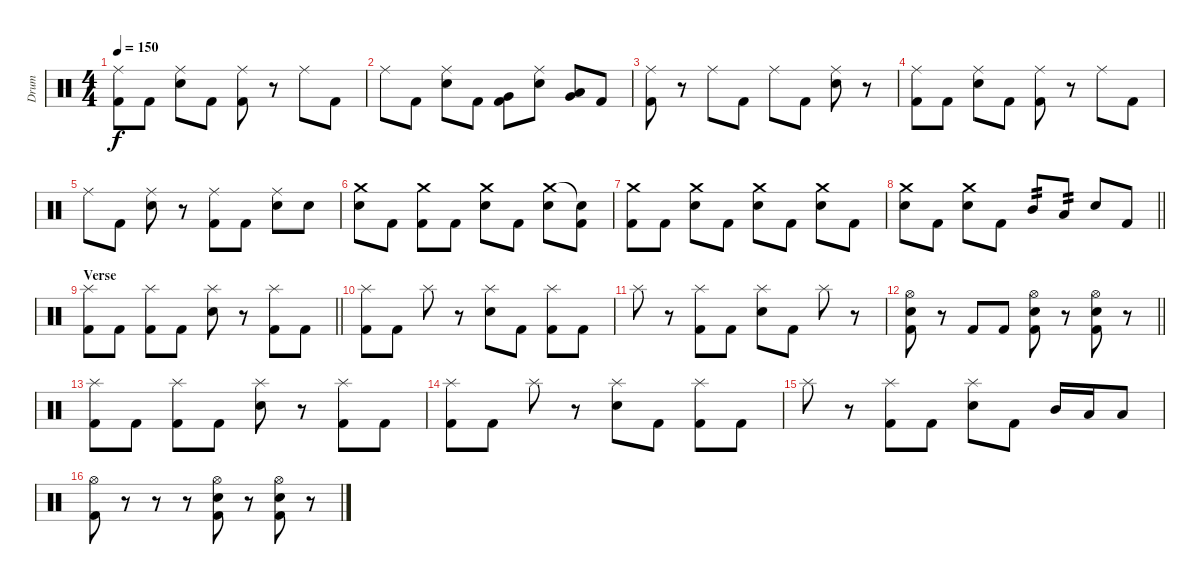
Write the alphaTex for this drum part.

\track ("Drum" "Drum") {instrument percussion}
\staff {score}
\articulation defaults
\ts (4 4)
\tempo 150
\clef neutral
\ks c
("Kick (hit) 2" "Ride (middle)").8{dy f} "Kick (hit) 2".8 ("Electric Snare (hit)" "Ride (middle)").8 "Kick (hit) 2".8 ("Kick (hit) 2" "Ride (middle)").8 r.8 "Ride (middle)".8 "Kick (hit) 2".8 |
"Ride (middle)".8 "Kick (hit) 2".8 ("Electric Snare (hit)" "Ride (middle)").8 "Kick (hit) 2".8 ("Kick (hit) 2" "Very Low Tom (hit)").8 ("Electric Snare (hit)" "Ride (middle)").8 ("Very Low Tom (hit)" "Low Tom (hit)").8 "Kick (hit) 2".8 |
("Kick (hit) 2" "Ride (middle)").8 r.8 "Ride (middle)".8 "Kick (hit) 2".8 "Ride (middle)".8 "Kick (hit) 2".8 ("Electric Snare (hit)" "Ride (middle)").8 r.8 |
("Kick (hit) 2" "Ride (middle)").8 "Kick (hit) 2".8 ("Electric Snare (hit)" "Ride (middle)").8 "Kick (hit) 2".8 ("Kick (hit) 2" "Ride (middle)").8 r.8 "Ride (middle)".8 "Kick (hit) 2".8 |
"Ride (middle)".8 "Kick (hit) 2".8 ("Electric Snare (hit)" "Ride (middle)").8 r.8 ("Kick (hit) 2" "Ride (middle)").8 "Kick (hit) 2".8 ("Electric Snare (hit)" "Ride (middle)").8 "Electric Snare (hit)".8 |
("Electric Snare (hit)" "Crash medium (hit)").8 "Kick (hit) 2".8 ("Kick (hit) 2" "Crash medium (hit)").8 "Kick (hit) 2".8 ("Electric Snare (hit)" "Crash medium (hit)").8 "Kick (hit) 2".8 ("Electric Snare (hit)" "Crash medium (hit)").8 ("Kick (hit) 2" "Snare (hit)"{t}).8 |
("Kick (hit) 2" "Crash medium (hit)").8 "Kick (hit) 2".8 ("Electric Snare (hit)" "Crash medium (hit)").8 "Kick (hit) 2".8 ("Electric Snare (hit)" "Crash medium (hit)").8 "Kick (hit) 2".8 ("Electric Snare (hit)" "Crash medium (hit)").8 "Kick (hit) 2".8 |
\barLineRight lightlight
("Electric Snare (hit)" "Crash medium (hit)").8 "Kick (hit) 2".8 ("Electric Snare (hit)" "Crash medium (hit)").8 "Kick (hit) 2".8 "Mid Tom (hit)".8{tp 2} "Low Tom (hit)".8{tp 2} "Electric Snare (hit)".8 "Kick (hit) 2".8 |
\section ("" "Verse")
\barLineRight lightlight
("Kick (hit) 2" "Splash (hit)").8 "Kick (hit) 2".8 ("Kick (hit) 2" "Splash (hit)").8 "Kick (hit) 2".8 ("Electric Snare (hit)" "Splash (hit)").8 r.8 ("Kick (hit) 2" "Splash (hit)").8 "Kick (hit) 2".8 |
("Kick (hit) 2" "Splash (hit)").8 "Kick (hit) 2".8 "Splash (hit)".8 r.8 ("Electric Snare (hit)" "Splash (hit)").8 "Kick (hit) 2".8 ("Kick (hit) 2" "Splash (hit)").8 "Kick (hit) 2".8 |
"Splash (hit)".8 r.8 ("Kick (hit) 2" "Splash (hit)").8 "Kick (hit) 2".8 ("Electric Snare (hit)" "Splash (hit)").8 "Kick (hit) 2".8 "Splash (hit)".8 r.8 |
\barLineRight lightlight
("Kick (hit) 2" "Electric Snare (hit)" "Hi-Hat (open)").8 r.8 "Kick (hit) 2".8 "Kick (hit) 2".8 ("Kick (hit) 2" "Electric Snare (hit)" "Hi-Hat (open)").8 r.8 ("Kick (hit) 2" "Electric Snare (hit)" "Hi-Hat (open)").8 r.8 |
("Kick (hit) 2" "Splash (hit)").8 "Kick (hit) 2".8 ("Kick (hit) 2" "Splash (hit)").8 "Kick (hit) 2".8 ("Electric Snare (hit)" "Splash (hit)").8 r.8 ("Kick (hit) 2" "Splash (hit)").8 "Kick (hit) 2".8 |
("Kick (hit) 2" "Splash (hit)").8 "Kick (hit) 2".8 "Splash (hit)".8 r.8 ("Electric Snare (hit)" "Splash (hit)").8 "Kick (hit) 2".8 ("Kick (hit) 2" "Splash (hit)").8 "Kick (hit) 2".8 |
"Splash (hit)".8 r.8 ("Kick (hit) 2" "Splash (hit)").8 "Kick (hit) 2".8 ("Electric Snare (hit)" "Splash (hit)").8 "Kick (hit) 2".8 "Mid Tom (hit)".16 "Low Tom (hit)".16 "Low Floor Tom (hit)".8 |
("Kick (hit) 2" "Hi-Hat (open)").8 r.8 r.8 r.8 ("Kick (hit) 2" "Electric Snare (hit)" "Hi-Hat (open)").8 r.8 ("Kick (hit) 2" "Electric Snare (hit)" "Hi-Hat (open)").8 r.8
